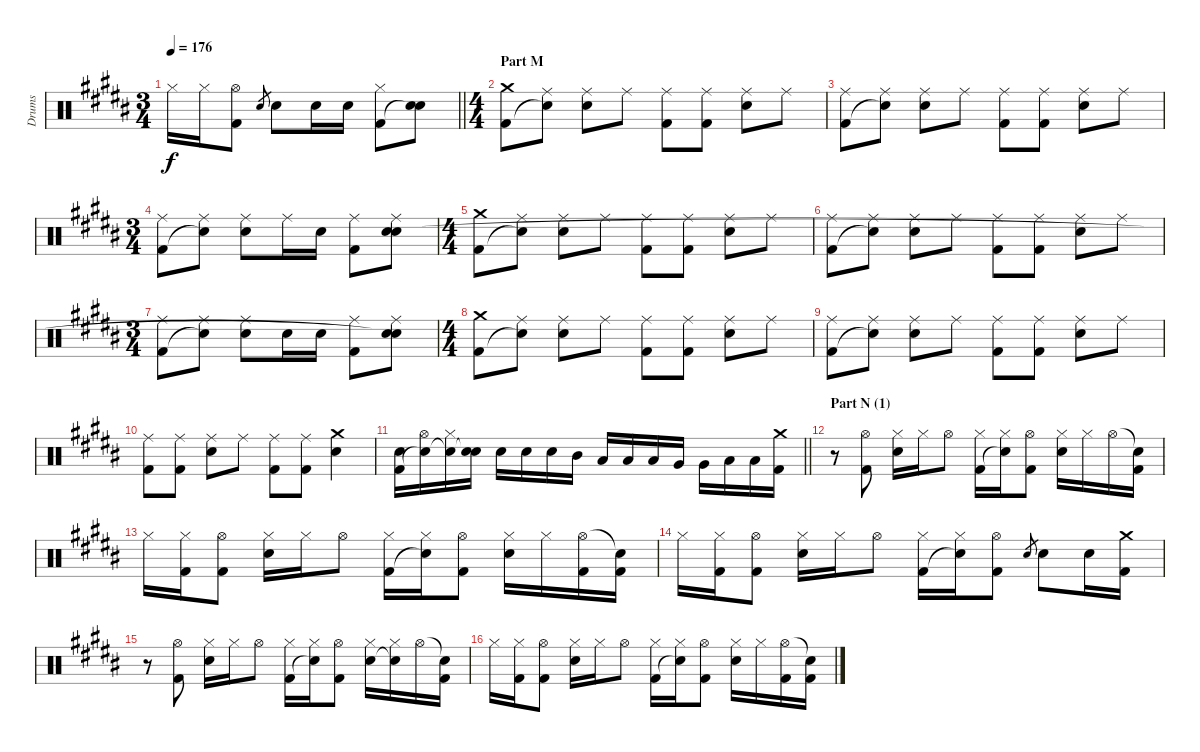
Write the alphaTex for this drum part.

\track ("Drums" "Drums") {instrument percussion}
\staff {score}
\articulation defaults
\ts (3 4)
\tempo 176
\clef neutral
\barLineRight lightlight
\ks b "Hi-Hat (closed)".16{dy f} "Hi-Hat (closed)".16
("Hi-Hat (open)" "Kick (hit) 2").8 "Electric Snare (hit)".8{gr} "Electric Snare (hit)".8 "Electric Snare (hit)".16 "Electric Snare (hit)".16 ("Hi-Hat (closed)" "Kick (hit) 2").8 ("Electric Snare (hit)" "Snare (hit)"{t}).8 |
\ts (4 4)
\section ("" "Part M")
("Crash medium (hit)" "Kick (hit) 2").8 ("Ride (middle)" "Snare (hit)"{t}).8 ("Ride (middle)" "Electric Snare (hit)").8 "Ride (middle)".8 ("Ride (middle)" "Kick (hit) 2").8 ("Ride (middle)" "Kick (hit) 2").8 ("Ride (middle)" "Electric Snare (hit)").8 "Ride (middle)".8 |
("Ride (middle)" "Kick (hit) 2").8 ("Ride (middle)" "Snare (hit)"{t}).8 ("Ride (middle)" "Electric Snare (hit)").8 "Ride (middle)".8 ("Ride (middle)" "Kick (hit) 2").8 ("Ride (middle)" "Kick (hit) 2").8 ("Ride (middle)" "Electric Snare (hit)").8 "Ride (middle)".8 |
\ts (3 4)
("Ride (middle)" "Kick (hit) 2").8 ("Ride (middle)" "Snare (hit)"{t}).8 ("Ride (middle)" "Electric Snare (hit)").8 "Ride (middle)".16 "Electric Snare (hit)".16 ("Ride (middle)" "Kick (hit) 2").8 ("Ride (middle)" "Electric Snare (hit)" "Snare (hit)").8 |
\ts (4 4)
("Crash medium (hit)" "Kick (hit) 2").8 ("Ride (middle)" "Snare (hit)"{t}).8 ("Ride (middle)" "Electric Snare (hit)").8 "Ride (middle)".8 ("Ride (middle)" "Kick (hit) 2").8 ("Ride (middle)" "Kick (hit) 2").8 ("Ride (middle)" "Electric Snare (hit)").8 "Ride (middle)".8 |
("Ride (middle)" "Kick (hit) 2").8 ("Ride (middle)" "Snare (hit)"{t}).8 ("Ride (middle)" "Electric Snare (hit)").8 "Ride (middle)".8 ("Ride (middle)" "Kick (hit) 2").8 ("Ride (middle)" "Kick (hit) 2").8 ("Ride (middle)" "Electric Snare (hit)").8 "Ride (middle)".8 |
\ts (3 4)
("Ride (middle)" "Kick (hit) 2").8 ("Ride (middle)" "Snare (hit)"{t}).8 ("Ride (middle)" "Electric Snare (hit)").8 "Electric Snare (hit)".16 "Electric Snare (hit)".16 ("Ride (middle)" "Kick (hit) 2").8 ("Ride (middle)" "Electric Snare (hit)" "Snare (hit)"{t}).8 |
\ts (4 4)
("Crash medium (hit)" "Kick (hit) 2").8 ("Ride (middle)" "Snare (hit)"{t}).8 ("Ride (middle)" "Electric Snare (hit)").8 "Ride (middle)".8 ("Ride (middle)" "Kick (hit) 2").8 ("Ride (middle)" "Kick (hit) 2").8 ("Ride (middle)" "Electric Snare (hit)").8 "Ride (middle)".8 |
("Ride (middle)" "Kick (hit) 2").8 ("Ride (middle)" "Snare (hit)"{t}).8 ("Ride (middle)" "Electric Snare (hit)").8 "Ride (middle)".8 ("Ride (middle)" "Kick (hit) 2").8 ("Ride (middle)" "Kick (hit) 2").8 ("Ride (middle)" "Electric Snare (hit)").8 "Ride (middle)".8 |
("Ride (middle)" "Kick (hit) 2").8 ("Ride (middle)" "Kick (hit) 2").8 ("Ride (middle)" "Electric Snare (hit)").8 "Ride (middle)".8 ("Ride (middle)" "Kick (hit) 2").8 ("Ride (middle)" "Kick (hit) 2").8 ("Crash medium (hit)" "Electric Snare (hit)").4 |
\barLineRight lightlight
("Electric Snare (hit)" "Kick (hit) 2").16 ("Hi-Hat (open)" "Snare (hit)"{t}).16 ("Hi-Hat (closed)" "Snare (hit)"{t}).16 ("Electric Snare (hit)" "Snare (hit)"{t}).16 "Electric Snare (hit)".16 "Electric Snare (hit)".16 "Electric Snare (hit)".16 "Mid Tom (hit)".16 "Low Tom (hit)".16 "Low Tom (hit)".16 "Low Tom (hit)".16 "Very Low Tom (hit)".16 "Very Low Tom (hit)".16 "Low Floor Tom (hit)".16 "Low Floor Tom (hit)".16 ("Crash medium (hit)" "Kick (hit) 2").16 |
\section ("" "Part N (1)")
r.8 ("Hi-Hat (open)" "Kick (hit) 2").8 ("Hi-Hat (closed)" "Electric Snare (hit)").16 "Hi-Hat (closed)".16 "Hi-Hat (open)".8 ("Hi-Hat (closed)" "Kick (hit) 2").16 ("Hi-Hat (closed)" "Snare (hit)"{t}).16 ("Hi-Hat (open)" "Kick (hit) 2").8 ("Hi-Hat (closed)" "Electric Snare (hit)").16 "Hi-Hat (closed)".16 "Hi-Hat (open)".16 ("Snare (hit)"{t} "Kick (hit) 2").16 |
"Hi-Hat (closed)".16 ("Hi-Hat (closed)" "Kick (hit) 2").16 ("Hi-Hat (open)" "Kick (hit) 2").8 ("Hi-Hat (closed)" "Electric Snare (hit)").16 "Hi-Hat (closed)".16 "Hi-Hat (open)".8 ("Hi-Hat (closed)" "Kick (hit) 2").16 ("Hi-Hat (closed)" "Snare (hit)"{t}).16 ("Hi-Hat (open)" "Kick (hit) 2").8 ("Hi-Hat (closed)" "Electric Snare (hit)").16 "Hi-Hat (closed)".16 ("Hi-Hat (open)" "Kick (hit) 2").16 ("Snare (hit)"{t} "Kick (hit) 2").16 |
"Hi-Hat (closed)".16 ("Hi-Hat (closed)" "Kick (hit) 2").16 ("Hi-Hat (open)" "Kick (hit) 2").8 ("Hi-Hat (closed)" "Electric Snare (hit)").16 "Hi-Hat (closed)".16 "Hi-Hat (open)".8 ("Hi-Hat (closed)" "Kick (hit) 2").16 ("Hi-Hat (closed)" "Snare (hit)"{t}).16 ("Hi-Hat (open)" "Kick (hit) 2").8 "Electric Snare (hit)".8{gr} "Electric Snare (hit)".8 "Electric Snare (hit)".16 ("Crash medium (hit)" "Kick (hit) 2").16 |
r.8 ("Hi-Hat (open)" "Kick (hit) 2").8 ("Hi-Hat (closed)" "Electric Snare (hit)").16 "Hi-Hat (closed)".16 "Hi-Hat (open)".8 ("Hi-Hat (closed)" "Kick (hit) 2").16 ("Hi-Hat (closed)" "Snare (hit)"{t}).16 ("Hi-Hat (open)" "Kick (hit) 2").8 ("Hi-Hat (closed)" "Electric Snare (hit)").16 ("Hi-Hat (closed)" "Snare (hit)"{t}).16 "Hi-Hat (open)".16 ("Snare (hit)"{t} "Kick (hit) 2").16 |
"Hi-Hat (closed)".16 ("Hi-Hat (closed)" "Kick (hit) 2").16 ("Hi-Hat (open)" "Kick (hit) 2").8 ("Hi-Hat (closed)" "Electric Snare (hit)").16 "Hi-Hat (closed)".16 "Hi-Hat (open)".8 ("Hi-Hat (closed)" "Kick (hit) 2").16 ("Hi-Hat (closed)" "Snare (hit)"{t}).16 ("Hi-Hat (open)" "Kick (hit) 2").8 ("Hi-Hat (closed)" "Electric Snare (hit)").16 "Hi-Hat (closed)".16 ("Hi-Hat (open)" "Kick (hit) 2").16 ("Snare (hit)"{t} "Kick (hit) 2").16
